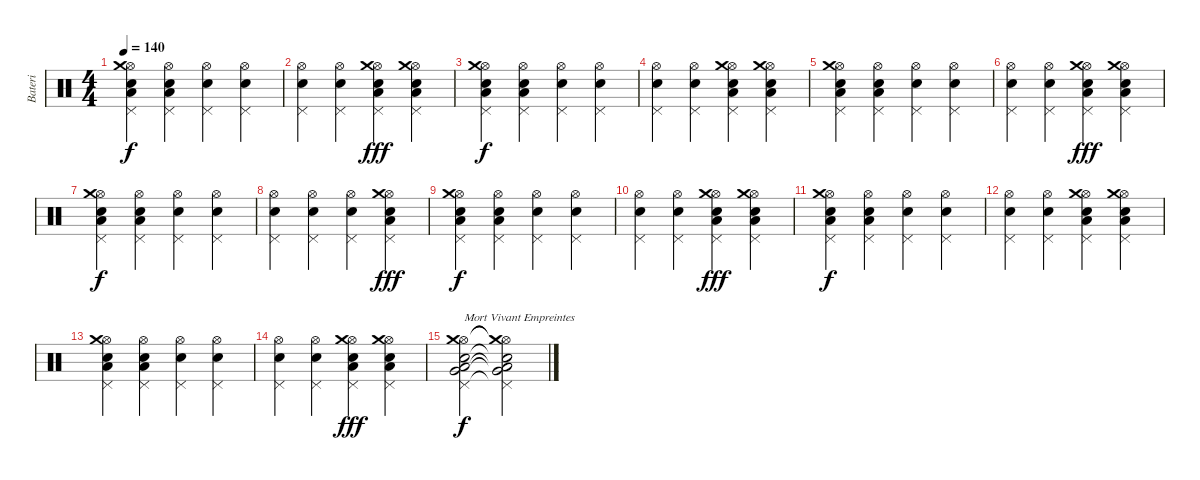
\track ("Bateri" "Bateri") {instrument percussion}
\staff {score}
\articulation defaults
\ts (4 4)
\tempo 140
\clef neutral
\ks c
("Hi-Hat (open)" "Low Tom (hit)" "Snare (hit) 2" "Crash medium (hit)" "Pedal Hi-Hat (hit)").4{dy f} ("Hi-Hat (open)" "Low Tom (hit)" "Snare (hit) 2" "Pedal Hi-Hat (hit)").4 ("Hi-Hat (open)" "Snare (hit) 2" "Pedal Hi-Hat (hit)").4 ("Hi-Hat (open)" "Snare (hit) 2" "Pedal Hi-Hat (hit)").4 |
("Hi-Hat (open)" "Snare (hit) 2" "Pedal Hi-Hat (hit)").4 ("Hi-Hat (open)" "Snare (hit) 2" "Pedal Hi-Hat (hit)").4 ("Hi-Hat (open)" "Low Tom (hit)" "Snare (hit) 2" "Crash medium (hit)" "Pedal Hi-Hat (hit)").4{dy fff} ("Hi-Hat (open)" "Low Tom (hit)" "Snare (hit) 2" "Crash medium (hit)" "Pedal Hi-Hat (hit)").4 |
("Hi-Hat (open)" "Low Tom (hit)" "Snare (hit) 2" "Crash medium (hit)" "Pedal Hi-Hat (hit)").4{dy f} ("Hi-Hat (open)" "Low Tom (hit)" "Snare (hit) 2" "Pedal Hi-Hat (hit)").4 ("Hi-Hat (open)" "Snare (hit) 2" "Pedal Hi-Hat (hit)").4 ("Hi-Hat (open)" "Snare (hit) 2" "Pedal Hi-Hat (hit)").4 |
("Hi-Hat (open)" "Snare (hit) 2" "Pedal Hi-Hat (hit)").4 ("Hi-Hat (open)" "Snare (hit) 2" "Pedal Hi-Hat (hit)").4 ("Hi-Hat (open)" "Low Tom (hit)" "Snare (hit) 2" "Crash medium (hit)" "Pedal Hi-Hat (hit)").4 ("Hi-Hat (open)" "Low Tom (hit)" "Snare (hit) 2" "Crash medium (hit)" "Pedal Hi-Hat (hit)").4 |
("Hi-Hat (open)" "Low Tom (hit)" "Snare (hit) 2" "Crash medium (hit)" "Pedal Hi-Hat (hit)").4 ("Hi-Hat (open)" "Low Tom (hit)" "Snare (hit) 2" "Pedal Hi-Hat (hit)").4 ("Hi-Hat (open)" "Snare (hit) 2" "Pedal Hi-Hat (hit)").4 ("Hi-Hat (open)" "Snare (hit) 2" "Pedal Hi-Hat (hit)").4 |
("Hi-Hat (open)" "Snare (hit) 2" "Pedal Hi-Hat (hit)").4 ("Hi-Hat (open)" "Snare (hit) 2" "Pedal Hi-Hat (hit)").4 ("Hi-Hat (open)" "Low Tom (hit)" "Snare (hit) 2" "Crash medium (hit)" "Pedal Hi-Hat (hit)").4{dy fff} ("Hi-Hat (open)" "Low Tom (hit)" "Snare (hit) 2" "Crash medium (hit)" "Pedal Hi-Hat (hit)").4 |
("Hi-Hat (open)" "Low Tom (hit)" "Snare (hit) 2" "Crash medium (hit)" "Pedal Hi-Hat (hit)").4{dy f} ("Hi-Hat (open)" "Low Tom (hit)" "Snare (hit) 2" "Pedal Hi-Hat (hit)").4 ("Hi-Hat (open)" "Snare (hit) 2" "Pedal Hi-Hat (hit)").4 ("Hi-Hat (open)" "Snare (hit) 2" "Pedal Hi-Hat (hit)").4 |
("Hi-Hat (open)" "Snare (hit) 2" "Pedal Hi-Hat (hit)").4 ("Hi-Hat (open)" "Snare (hit) 2" "Pedal Hi-Hat (hit)").4 ("Hi-Hat (open)" "Snare (hit) 2" "Pedal Hi-Hat (hit)").4 ("Hi-Hat (open)" "Low Tom (hit)" "Snare (hit) 2" "Crash medium (hit)" "Pedal Hi-Hat (hit)").4{dy fff} |
("Hi-Hat (open)" "Low Tom (hit)" "Snare (hit) 2" "Crash medium (hit)" "Pedal Hi-Hat (hit)").4{dy f} ("Hi-Hat (open)" "Low Tom (hit)" "Snare (hit) 2" "Pedal Hi-Hat (hit)").4 ("Hi-Hat (open)" "Snare (hit) 2" "Pedal Hi-Hat (hit)").4 ("Hi-Hat (open)" "Snare (hit) 2" "Pedal Hi-Hat (hit)").4 |
("Hi-Hat (open)" "Snare (hit) 2" "Pedal Hi-Hat (hit)").4 ("Hi-Hat (open)" "Snare (hit) 2" "Pedal Hi-Hat (hit)").4 ("Hi-Hat (open)" "Low Tom (hit)" "Snare (hit) 2" "Crash medium (hit)" "Pedal Hi-Hat (hit)").4{dy fff} ("Hi-Hat (open)" "Low Tom (hit)" "Snare (hit) 2" "Crash medium (hit)" "Pedal Hi-Hat (hit)").4 |
("Hi-Hat (open)" "Low Tom (hit)" "Snare (hit) 2" "Crash medium (hit)" "Pedal Hi-Hat (hit)").4{dy f} ("Hi-Hat (open)" "Low Tom (hit)" "Snare (hit) 2" "Pedal Hi-Hat (hit)").4 ("Hi-Hat (open)" "Snare (hit) 2" "Pedal Hi-Hat (hit)").4 ("Hi-Hat (open)" "Snare (hit) 2" "Pedal Hi-Hat (hit)").4 |
("Hi-Hat (open)" "Snare (hit) 2" "Pedal Hi-Hat (hit)").4 ("Hi-Hat (open)" "Snare (hit) 2" "Pedal Hi-Hat (hit)").4 ("Hi-Hat (open)" "Low Tom (hit)" "Snare (hit) 2" "Crash medium (hit)" "Pedal Hi-Hat (hit)").4 ("Hi-Hat (open)" "Low Tom (hit)" "Snare (hit) 2" "Crash medium (hit)" "Pedal Hi-Hat (hit)").4 |
("Hi-Hat (open)" "Low Tom (hit)" "Snare (hit) 2" "Crash medium (hit)" "Pedal Hi-Hat (hit)").4 ("Hi-Hat (open)" "Low Tom (hit)" "Snare (hit) 2" "Pedal Hi-Hat (hit)").4 ("Hi-Hat (open)" "Snare (hit) 2" "Pedal Hi-Hat (hit)").4 ("Hi-Hat (open)" "Snare (hit) 2" "Pedal Hi-Hat (hit)").4 |
("Hi-Hat (open)" "Snare (hit) 2" "Pedal Hi-Hat (hit)").4 ("Hi-Hat (open)" "Snare (hit) 2" "Pedal Hi-Hat (hit)").4 ("Hi-Hat (open)" "Low Tom (hit)" "Snare (hit) 2" "Crash medium (hit)" "Pedal Hi-Hat (hit)").4{dy fff} ("Hi-Hat (open)" "Low Tom (hit)" "Snare (hit) 2" "Crash medium (hit)" "Pedal Hi-Hat (hit)").4 |
("Hi-Hat (open)" "Very Low Tom (hit)" "Low Tom (hit)" "Snare (hit) 2" "Crash medium (hit)" "Pedal Hi-Hat (hit)").2{txt "Mort Vivant Empreintes" dy f} ("Hi-Hat (open)"{t} "Very Low Tom (hit)"{t} "Low Tom (hit)"{t} "Snare (hit) 2"{t} "Crash medium (hit)"{t} "Pedal Hi-Hat (hit)"{t}).2
